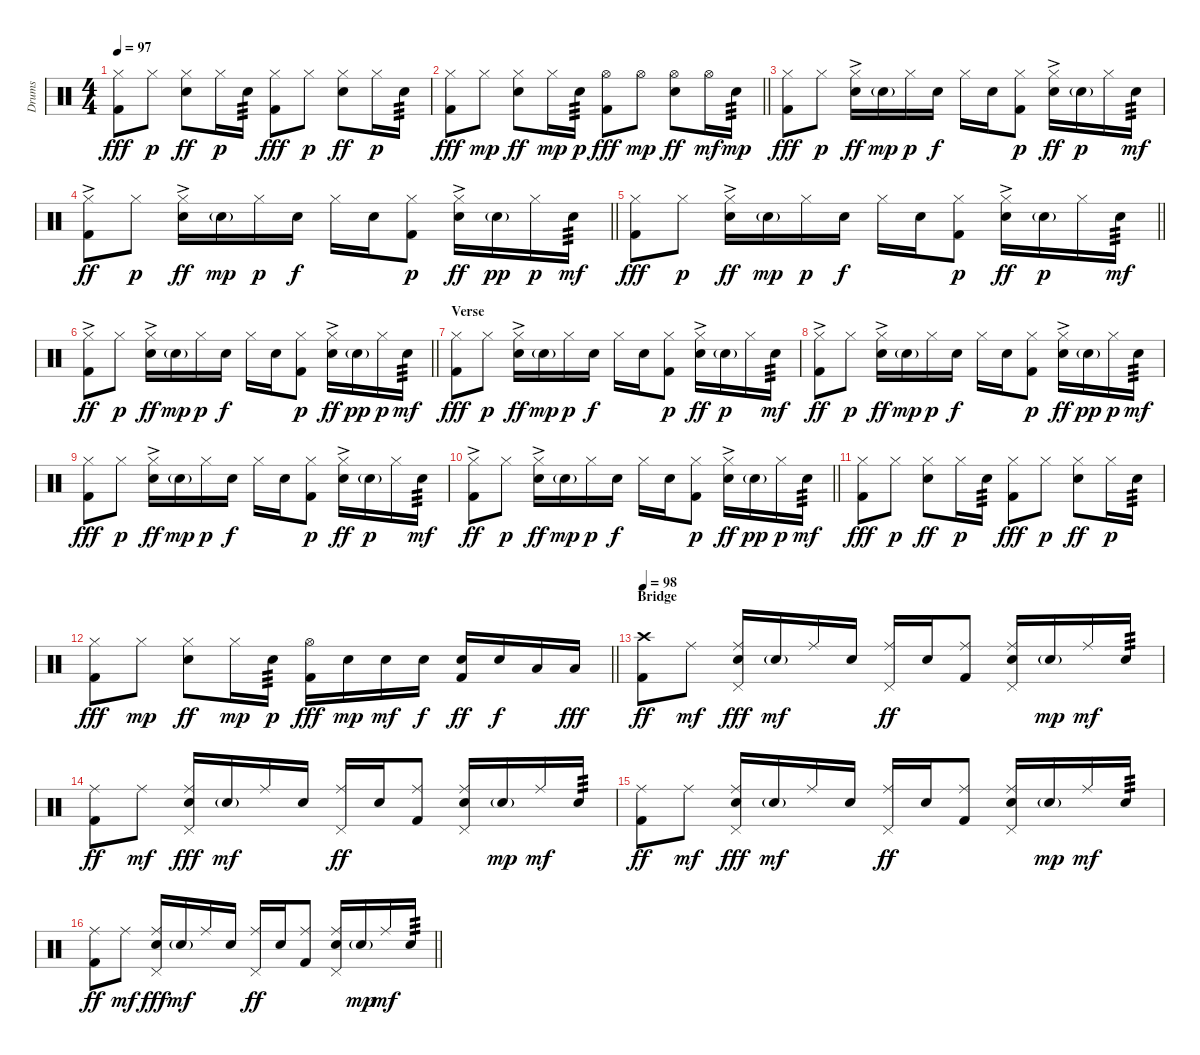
\track ("Drums" "Drums") {instrument percussion}
\staff {score}
\articulation defaults
\ts (4 4)
\tempo 97
\clef neutral
\ks c
("Hi-Hat (closed)" "Kick (hit) 2").8{dy fff} "Hi-Hat (closed)".8{dy p} ("Hi-Hat (closed)" "Electric Snare (hit)").8{dy ff} "Hi-Hat (closed)".16{dy p} "Electric Snare (hit)".16{tp 3} ("Hi-Hat (closed)" "Kick (hit) 2").8{dy fff} "Hi-Hat (closed)".8{dy p} ("Hi-Hat (closed)" "Electric Snare (hit)").8{dy ff} "Hi-Hat (closed)".16{dy p} "Electric Snare (hit)".16{tp 3} |
\barLineRight lightlight
("Hi-Hat (closed)" "Kick (hit) 2").8{dy fff} "Hi-Hat (closed)".8{dy mp} ("Hi-Hat (closed)" "Electric Snare (hit)").8{dy ff} "Hi-Hat (closed)".16{dy mp} "Electric Snare (hit)".16{tp 3 dy p} ("Hi-Hat (open)" "Kick (hit) 2").8{dy fff} "Hi-Hat (open)".8{dy mp} ("Hi-Hat (open)" "Electric Snare (hit)").8{dy ff} "Hi-Hat (open)".16{dy mf} "Electric Snare (hit)".16{tp 3 dy mp} |
("Hi-Hat (closed)" "Kick (hit) 2").8{dy fff} "Hi-Hat (closed)".8{dy p} ("Hi-Hat (closed)"{ac} "Electric Snare (hit)"{ac}).16{dy ff} "Electric Snare (hit)"{g}.16{dy mp} "Hi-Hat (closed)".16{dy p} "Electric Snare (hit)".16{dy f} "Hi-Hat (closed)".16 "Electric Snare (hit)".16 ("Hi-Hat (closed)" "Kick (hit) 2").8{dy p} ("Hi-Hat (closed)"{ac} "Electric Snare (hit)"{ac}).16{dy ff} "Electric Snare (hit)"{g}.16{dy p} "Hi-Hat (closed)".16 "Electric Snare (hit)".16{tp 3 dy mf} |
\barLineRight lightlight
("Hi-Hat (closed)"{ac} "Kick (hit) 2").8{dy ff} "Hi-Hat (closed)".8{dy p} ("Hi-Hat (closed)"{ac} "Electric Snare (hit)"{ac}).16{dy ff} "Electric Snare (hit)"{g}.16{dy mp} "Hi-Hat (closed)".16{dy p} "Electric Snare (hit)".16{dy f} "Hi-Hat (closed)".16 "Electric Snare (hit)".16 ("Hi-Hat (closed)" "Kick (hit) 2").8{dy p} ("Hi-Hat (closed)"{ac} "Electric Snare (hit)"{ac}).16{dy ff} "Electric Snare (hit)"{g}.16{dy pp} "Hi-Hat (closed)".16{dy p} "Electric Snare (hit)".16{tp 3 dy mf} |
\barLineRight lightlight
("Hi-Hat (closed)" "Kick (hit) 2").8{dy fff} "Hi-Hat (closed)".8{dy p} ("Hi-Hat (closed)"{ac} "Electric Snare (hit)"{ac}).16{dy ff} "Electric Snare (hit)"{g}.16{dy mp} "Hi-Hat (closed)".16{dy p} "Electric Snare (hit)".16{dy f} "Hi-Hat (closed)".16 "Electric Snare (hit)".16 ("Hi-Hat (closed)" "Kick (hit) 2").8{dy p} ("Hi-Hat (closed)"{ac} "Electric Snare (hit)"{ac}).16{dy ff} "Electric Snare (hit)"{g}.16{dy p} "Hi-Hat (closed)".16 "Electric Snare (hit)".16{tp 3 dy mf} |
\barLineRight lightlight
("Hi-Hat (closed)"{ac} "Kick (hit) 2").8{dy ff} "Hi-Hat (closed)".8{dy p} ("Hi-Hat (closed)"{ac} "Electric Snare (hit)"{ac}).16{dy ff} "Electric Snare (hit)"{g}.16{dy mp} "Hi-Hat (closed)".16{dy p} "Electric Snare (hit)".16{dy f} "Hi-Hat (closed)".16 "Electric Snare (hit)".16 ("Hi-Hat (closed)" "Kick (hit) 2").8{dy p} ("Hi-Hat (closed)"{ac} "Electric Snare (hit)"{ac}).16{dy ff} "Electric Snare (hit)"{g}.16{dy pp} "Hi-Hat (closed)".16{dy p} "Electric Snare (hit)".16{tp 3 dy mf} |
\section ("" "Verse")
("Hi-Hat (closed)" "Kick (hit) 2").8{dy fff} "Hi-Hat (closed)".8{dy p} ("Hi-Hat (closed)"{ac} "Electric Snare (hit)"{ac}).16{dy ff} "Electric Snare (hit)"{g}.16{dy mp} "Hi-Hat (closed)".16{dy p} "Electric Snare (hit)".16{dy f} "Hi-Hat (closed)".16 "Electric Snare (hit)".16 ("Hi-Hat (closed)" "Kick (hit) 2").8{dy p} ("Hi-Hat (closed)"{ac} "Electric Snare (hit)"{ac}).16{dy ff} "Electric Snare (hit)"{g}.16{dy p} "Hi-Hat (closed)".16 "Electric Snare (hit)".16{tp 3 dy mf} |
("Hi-Hat (closed)"{ac} "Kick (hit) 2").8{dy ff} "Hi-Hat (closed)".8{dy p} ("Hi-Hat (closed)"{ac} "Electric Snare (hit)"{ac}).16{dy ff} "Electric Snare (hit)"{g}.16{dy mp} "Hi-Hat (closed)".16{dy p} "Electric Snare (hit)".16{dy f} "Hi-Hat (closed)".16 "Electric Snare (hit)".16 ("Hi-Hat (closed)" "Kick (hit) 2").8{dy p} ("Hi-Hat (closed)"{ac} "Electric Snare (hit)"{ac}).16{dy ff} "Electric Snare (hit)"{g}.16{dy pp} "Hi-Hat (closed)".16{dy p} "Electric Snare (hit)".16{tp 3 dy mf} |
("Hi-Hat (closed)" "Kick (hit) 2").8{dy fff} "Hi-Hat (closed)".8{dy p} ("Hi-Hat (closed)"{ac} "Electric Snare (hit)"{ac}).16{dy ff} "Electric Snare (hit)"{g}.16{dy mp} "Hi-Hat (closed)".16{dy p} "Electric Snare (hit)".16{dy f} "Hi-Hat (closed)".16 "Electric Snare (hit)".16 ("Hi-Hat (closed)" "Kick (hit) 2").8{dy p} ("Hi-Hat (closed)"{ac} "Electric Snare (hit)"{ac}).16{dy ff} "Electric Snare (hit)"{g}.16{dy p} "Hi-Hat (closed)".16 "Electric Snare (hit)".16{tp 3 dy mf} |
\barLineRight lightlight
("Hi-Hat (closed)"{ac} "Kick (hit) 2").8{dy ff} "Hi-Hat (closed)".8{dy p} ("Hi-Hat (closed)"{ac} "Electric Snare (hit)"{ac}).16{dy ff} "Electric Snare (hit)"{g}.16{dy mp} "Hi-Hat (closed)".16{dy p} "Electric Snare (hit)".16{dy f} "Hi-Hat (closed)".16 "Electric Snare (hit)".16 ("Hi-Hat (closed)" "Kick (hit) 2").8{dy p} ("Hi-Hat (closed)"{ac} "Electric Snare (hit)"{ac}).16{dy ff} "Electric Snare (hit)"{g}.16{dy pp} "Hi-Hat (closed)".16{dy p} "Electric Snare (hit)".16{tp 3 dy mf} |
("Hi-Hat (closed)" "Kick (hit) 2").8{dy fff} "Hi-Hat (closed)".8{dy p} ("Hi-Hat (closed)" "Electric Snare (hit)").8{dy ff} "Hi-Hat (closed)".16{dy p} "Electric Snare (hit)".16{tp 3} ("Hi-Hat (closed)" "Kick (hit) 2").8{dy fff} "Hi-Hat (closed)".8{dy p} ("Hi-Hat (closed)" "Electric Snare (hit)").8{dy ff} "Hi-Hat (closed)".16{dy p} "Electric Snare (hit)".16{tp 3} |
\barLineRight lightlight
("Hi-Hat (closed)" "Kick (hit) 2").8{dy fff} "Hi-Hat (closed)".8{dy mp} ("Hi-Hat (closed)" "Electric Snare (hit)").8{dy ff} "Hi-Hat (closed)".16{dy mp} "Electric Snare (hit)".16{tp 3 dy p} ("Hi-Hat (open)" "Kick (hit) 2").16{dy fff} "Electric Snare (hit)".16{dy mp} "Electric Snare (hit)".16{dy mf} "Electric Snare (hit)".16{dy f} ("Electric Snare (hit)" "Kick (hit) 2").16{dy ff} "Electric Snare (hit)".16{dy f} "Low Tom (hit)".16 "Low Tom (hit)".16{dy fff} |
\section ("" "Bridge")
\tempo 98
("Crash high (hit)" "Kick (hit) 2").8{dy ff} "Ride (middle)".8{dy mf} ("Ride (middle)" "Pedal Hi-Hat (hit)" "Electric Snare (hit)").16{dy fff} "Electric Snare (hit)"{g}.16{dy mf} "Ride (middle)".16 "Electric Snare (hit)".16 ("Ride (middle)" "Pedal Hi-Hat (hit)").16{dy ff} "Electric Snare (hit)".16 ("Ride (middle)" "Kick (hit) 2").8 ("Ride (middle)" "Pedal Hi-Hat (hit)" "Electric Snare (hit)").16 "Electric Snare (hit)"{g}.16{dy mp} "Ride (middle)".16{dy mf} "Electric Snare (hit)".16{tp 3} |
("Ride (middle)" "Kick (hit) 2").8{dy ff} "Ride (middle)".8{dy mf} ("Ride (middle)" "Pedal Hi-Hat (hit)" "Electric Snare (hit)").16{dy fff} "Electric Snare (hit)"{g}.16{dy mf} "Ride (middle)".16 "Electric Snare (hit)".16 ("Ride (middle)" "Pedal Hi-Hat (hit)").16{dy ff} "Electric Snare (hit)".16 ("Ride (middle)" "Kick (hit) 2").8 ("Ride (middle)" "Pedal Hi-Hat (hit)" "Electric Snare (hit)").16 "Electric Snare (hit)"{g}.16{dy mp} "Ride (middle)".16{dy mf} "Electric Snare (hit)".16{tp 3} |
("Ride (middle)" "Kick (hit) 2").8{dy ff} "Ride (middle)".8{dy mf} ("Ride (middle)" "Pedal Hi-Hat (hit)" "Electric Snare (hit)").16{dy fff} "Electric Snare (hit)"{g}.16{dy mf} "Ride (middle)".16 "Electric Snare (hit)".16 ("Ride (middle)" "Pedal Hi-Hat (hit)").16{dy ff} "Electric Snare (hit)".16 ("Ride (middle)" "Kick (hit) 2").8 ("Ride (middle)" "Pedal Hi-Hat (hit)" "Electric Snare (hit)").16 "Electric Snare (hit)"{g}.16{dy mp} "Ride (middle)".16{dy mf} "Electric Snare (hit)".16{tp 3} |
\barLineRight lightlight
("Ride (middle)" "Kick (hit) 2").8{dy ff} "Ride (middle)".8{dy mf} ("Ride (middle)" "Pedal Hi-Hat (hit)" "Electric Snare (hit)").16{dy fff} "Electric Snare (hit)"{g}.16{dy mf} "Ride (middle)".16 "Electric Snare (hit)".16 ("Ride (middle)" "Pedal Hi-Hat (hit)").16{dy ff} "Electric Snare (hit)".16 ("Ride (middle)" "Kick (hit) 2").8 ("Ride (middle)" "Pedal Hi-Hat (hit)" "Electric Snare (hit)").16 "Electric Snare (hit)"{g}.16{dy mp} "Ride (middle)".16{dy mf} "Electric Snare (hit)".16{tp 3}
